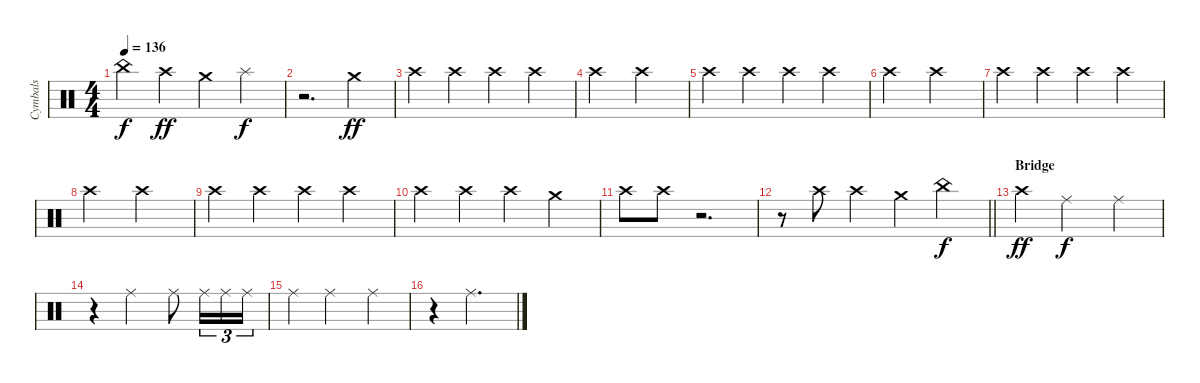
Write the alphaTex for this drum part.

\track ("Cymbals" "Cymbals") {instrument percussion}
\staff {score}
\articulation defaults
\ts (4 4)
\tempo 136
\clef neutral
\ks c "China (hit)".4{dy f} "Crash high (hit)".4{dy ff} "Crash medium (hit)".4 "Splash (hit)".4{dy f}
|
r.2{d} "Crash medium (hit)".4{dy ff} |
"Crash high (hit)".4 "Crash high (hit)".4 "Crash high (hit)".4 "Crash high (hit)".4 |
"Crash high (hit)".2 "Crash high (hit)".2 |
"Crash high (hit)".4 "Crash high (hit)".4 "Crash high (hit)".4 "Crash high (hit)".4 |
"Crash high (hit)".2 "Crash high (hit)".2 |
"Crash high (hit)".4 "Crash high (hit)".4 "Crash high (hit)".4 "Crash high (hit)".4 |
"Crash high (hit)".2 "Crash high (hit)".2 |
"Crash high (hit)".4 "Crash high (hit)".4 "Crash high (hit)".4 "Crash high (hit)".4 |
"Crash high (hit)".4 "Crash high (hit)".4 "Crash high (hit)".4 "Crash medium (hit)".4 |
"Crash high (hit)".8 "Crash high (hit)".8 r.2{d} |
\barLineRight lightlight
r.8 "Crash high (hit)".8 "Crash high (hit)".4 "Crash medium (hit)".4 "China (hit)".4{dy f} |
\section ("" "Bridge")
"Crash high (hit)".4{dy ff} "Ride (middle)".2{dy f} "Ride (middle)".4 |
r.4 "Ride (middle)".2 "Ride (middle)".8 "Ride (middle)".16{tu (3 2)} "Ride (middle)".16{tu (3 2)} "Ride (middle)".16{tu (3 2)} |
"Ride (middle)".4 "Ride (middle)".2 "Ride (middle)".4 |
r.4 "Ride (middle)".2{d}
